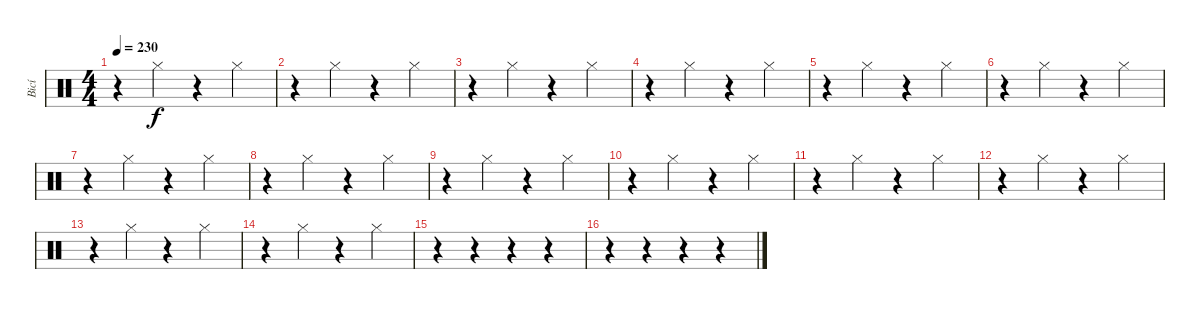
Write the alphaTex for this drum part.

\track ("Bicí" "Bicí") {instrument percussion}
\staff {score}
\articulation defaults
\ts (4 4)
\tempo 230
\clef neutral
\ks c
r.4{dy f} "Hi-Hat (closed)".4 r.4 "Hi-Hat (closed)".4 |
r.4 "Hi-Hat (closed)".4 r.4 "Hi-Hat (closed)".4 |
r.4 "Hi-Hat (closed)".4 r.4 "Hi-Hat (closed)".4 |
r.4 "Hi-Hat (closed)".4 r.4 "Hi-Hat (closed)".4 |
r.4 "Hi-Hat (closed)".4 r.4 "Hi-Hat (closed)".4 |
r.4 "Hi-Hat (closed)".4 r.4 "Hi-Hat (closed)".4 |
r.4 "Hi-Hat (closed)".4 r.4 "Hi-Hat (closed)".4 |
r.4 "Hi-Hat (closed)".4 r.4 "Hi-Hat (closed)".4 |
r.4 "Hi-Hat (closed)".4 r.4 "Hi-Hat (closed)".4 |
r.4 "Hi-Hat (closed)".4 r.4 "Hi-Hat (closed)".4 |
r.4 "Hi-Hat (closed)".4 r.4 "Hi-Hat (closed)".4 |
r.4 "Hi-Hat (closed)".4 r.4 "Hi-Hat (closed)".4 |
r.4 "Hi-Hat (closed)".4 r.4 "Hi-Hat (closed)".4 |
r.4 "Hi-Hat (closed)".4 r.4 "Hi-Hat (closed)".4 |
r.4 r.4 r.4 r.4 |
r.4 r.4 r.4 r.4
